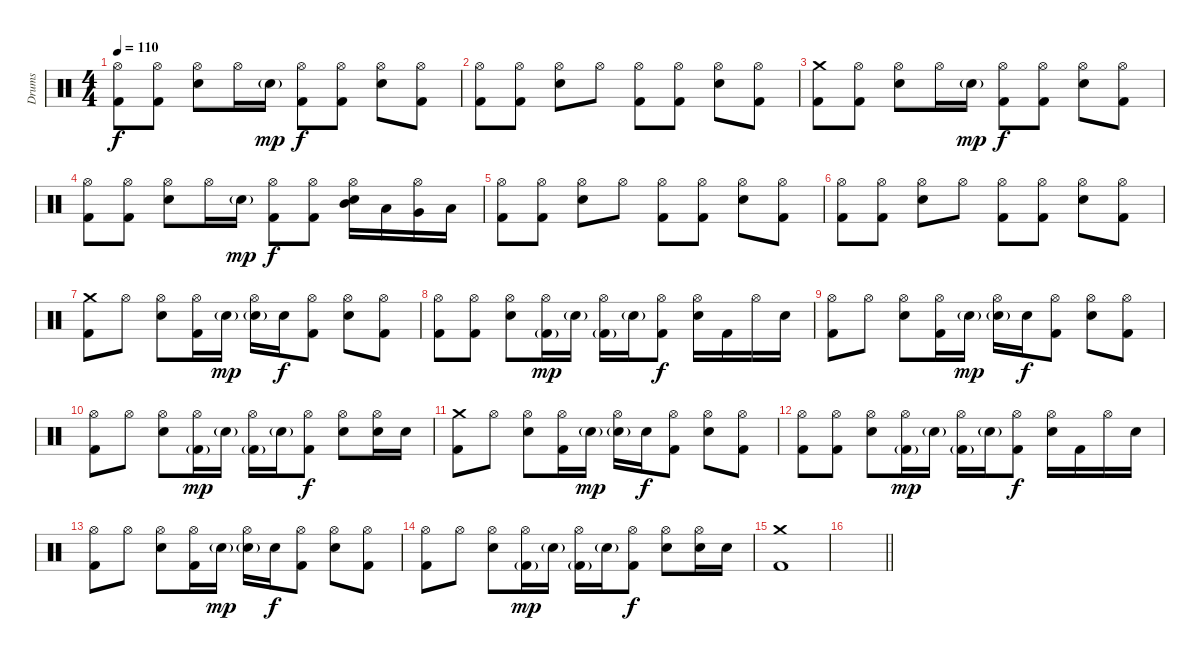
\track ("Drums" "Drums") {instrument percussion}
\staff {score}
\articulation defaults
\ts (4 4)
\tempo 110
\clef neutral
\ks c
("Hi-Hat (open)" "Kick (hit) 2").8{dy f} ("Hi-Hat (open)" "Kick (hit) 2").8 ("Hi-Hat (open)" "Electric Snare (hit)").8 "Hi-Hat (open)".16 "Electric Snare (hit)"{g}.16{dy mp} ("Hi-Hat (open)" "Kick (hit) 2").8{dy f} ("Hi-Hat (open)" "Kick (hit) 2").8 ("Hi-Hat (open)" "Electric Snare (hit)").8 ("Hi-Hat (open)" "Kick (hit) 2").8 |
("Hi-Hat (open)" "Kick (hit) 2").8 ("Hi-Hat (open)" "Kick (hit) 2").8 ("Hi-Hat (open)" "Electric Snare (hit)").8 "Hi-Hat (open)".8 ("Hi-Hat (open)" "Kick (hit) 2").8 ("Hi-Hat (open)" "Kick (hit) 2").8 ("Hi-Hat (open)" "Electric Snare (hit)").8 ("Hi-Hat (open)" "Kick (hit) 2").8 |
("Crash medium (hit)" "Kick (hit) 2").8 ("Hi-Hat (open)" "Kick (hit) 2").8 ("Hi-Hat (open)" "Electric Snare (hit)").8 "Hi-Hat (open)".16 "Electric Snare (hit)"{g}.16{dy mp} ("Hi-Hat (open)" "Kick (hit) 2").8{dy f} ("Hi-Hat (open)" "Kick (hit) 2").8 ("Hi-Hat (open)" "Electric Snare (hit)").8 ("Hi-Hat (open)" "Kick (hit) 2").8 |
("Hi-Hat (open)" "Kick (hit) 2").8 ("Hi-Hat (open)" "Kick (hit) 2").8 ("Hi-Hat (open)" "Electric Snare (hit)").8 "Hi-Hat (open)".16 "Electric Snare (hit)"{g}.16{dy mp} ("Hi-Hat (open)" "Kick (hit) 2").8{dy f} ("Hi-Hat (open)" "Kick (hit) 2").8 ("Hi-Hat (open)" "Mid Tom (hit)" "Electric Snare (hit)").16 "Low Tom (hit)".16 ("Hi-Hat (open)" "Very Low Tom (hit)").16 "Low Floor Tom (hit)".16 |
("Hi-Hat (open)" "Kick (hit) 2").8 ("Hi-Hat (open)" "Kick (hit) 2").8 ("Hi-Hat (open)" "Electric Snare (hit)").8 "Hi-Hat (open)".8 ("Hi-Hat (open)" "Kick (hit) 2").8 ("Hi-Hat (open)" "Kick (hit) 2").8 ("Hi-Hat (open)" "Electric Snare (hit)").8 ("Hi-Hat (open)" "Kick (hit) 2").8 |
("Hi-Hat (open)" "Kick (hit) 2").8 ("Hi-Hat (open)" "Kick (hit) 2").8 ("Hi-Hat (open)" "Electric Snare (hit)").8 "Hi-Hat (open)".8 ("Hi-Hat (open)" "Kick (hit) 2").8 ("Hi-Hat (open)" "Kick (hit) 2").8 ("Hi-Hat (open)" "Electric Snare (hit)").8 ("Hi-Hat (open)" "Kick (hit) 2").8 |
("Crash medium (hit)" "Kick (hit) 2").8 "Hi-Hat (open)".8 ("Hi-Hat (open)" "Electric Snare (hit)").8 ("Hi-Hat (open)" "Kick (hit) 2").16 "Electric Snare (hit)"{g}.16{dy mp} ("Hi-Hat (open)" "Electric Snare (hit)"{g}).16 "Electric Snare (hit)".16{dy f} ("Hi-Hat (open)" "Kick (hit) 2").8 ("Hi-Hat (open)" "Electric Snare (hit)").8 ("Hi-Hat (open)" "Kick (hit) 2").8 |
("Hi-Hat (open)" "Kick (hit) 2").8 ("Hi-Hat (open)" "Kick (hit) 2").8 ("Hi-Hat (open)" "Electric Snare (hit)").8 ("Hi-Hat (open)" "Kick (hit) 2"{g}).16{dy mp} "Electric Snare (hit)"{g}.16 ("Hi-Hat (open)" "Kick (hit) 2"{g}).16 "Electric Snare (hit)"{g}.16 ("Hi-Hat (open)" "Kick (hit) 2").8{dy f} ("Hi-Hat (open)" "Electric Snare (hit)").16 "Kick (hit) 2".16 "Hi-Hat (open)".16 "Electric Snare (hit)".16 |
("Hi-Hat (open)" "Kick (hit) 2").8 "Hi-Hat (open)".8 ("Hi-Hat (open)" "Electric Snare (hit)").8 ("Hi-Hat (open)" "Kick (hit) 2").16 "Electric Snare (hit)"{g}.16{dy mp} ("Hi-Hat (open)" "Electric Snare (hit)"{g}).16 "Electric Snare (hit)".16{dy f} ("Hi-Hat (open)" "Kick (hit) 2").8 ("Hi-Hat (open)" "Electric Snare (hit)").8 ("Hi-Hat (open)" "Kick (hit) 2").8 |
("Hi-Hat (open)" "Kick (hit) 2").8 "Hi-Hat (open)".8 ("Hi-Hat (open)" "Electric Snare (hit)").8 ("Hi-Hat (open)" "Kick (hit) 2"{g}).16{dy mp} "Electric Snare (hit)"{g}.16 ("Hi-Hat (open)" "Kick (hit) 2"{g}).16 "Electric Snare (hit)"{g}.16 ("Hi-Hat (open)" "Kick (hit) 2").8{dy f} ("Hi-Hat (open)" "Electric Snare (hit)").8 ("Hi-Hat (open)" "Electric Snare (hit)").16 "Electric Snare (hit)".16 |
("Crash medium (hit)" "Kick (hit) 2").8 "Hi-Hat (open)".8 ("Hi-Hat (open)" "Electric Snare (hit)").8 ("Hi-Hat (open)" "Kick (hit) 2").16 "Electric Snare (hit)"{g}.16{dy mp} ("Hi-Hat (open)" "Electric Snare (hit)"{g}).16 "Electric Snare (hit)".16{dy f} ("Hi-Hat (open)" "Kick (hit) 2").8 ("Hi-Hat (open)" "Electric Snare (hit)").8 ("Hi-Hat (open)" "Kick (hit) 2").8 |
("Hi-Hat (open)" "Kick (hit) 2").8 ("Hi-Hat (open)" "Kick (hit) 2").8 ("Hi-Hat (open)" "Electric Snare (hit)").8 ("Hi-Hat (open)" "Kick (hit) 2"{g}).16{dy mp} "Electric Snare (hit)"{g}.16 ("Hi-Hat (open)" "Kick (hit) 2"{g}).16 "Electric Snare (hit)"{g}.16 ("Hi-Hat (open)" "Kick (hit) 2").8{dy f} ("Hi-Hat (open)" "Electric Snare (hit)").16 "Kick (hit) 2".16 "Hi-Hat (open)".16 "Electric Snare (hit)".16 |
("Hi-Hat (open)" "Kick (hit) 2").8 "Hi-Hat (open)".8 ("Hi-Hat (open)" "Electric Snare (hit)").8 ("Hi-Hat (open)" "Kick (hit) 2").16 "Electric Snare (hit)"{g}.16{dy mp} ("Hi-Hat (open)" "Electric Snare (hit)"{g}).16 "Electric Snare (hit)".16{dy f} ("Hi-Hat (open)" "Kick (hit) 2").8 ("Hi-Hat (open)" "Electric Snare (hit)").8 ("Hi-Hat (open)" "Kick (hit) 2").8 |
("Hi-Hat (open)" "Kick (hit) 2").8 "Hi-Hat (open)".8 ("Hi-Hat (open)" "Electric Snare (hit)").8 ("Hi-Hat (open)" "Kick (hit) 2"{g}).16{dy mp} "Electric Snare (hit)"{g}.16 ("Hi-Hat (open)" "Kick (hit) 2"{g}).16 "Electric Snare (hit)"{g}.16 ("Hi-Hat (open)" "Kick (hit) 2").8{dy f} ("Hi-Hat (open)" "Electric Snare (hit)").8 ("Hi-Hat (open)" "Electric Snare (hit)").16 "Electric Snare (hit)".16 |
("Crash medium (hit)" "Kick (hit) 2").1 |
\barLineRight lightlight
